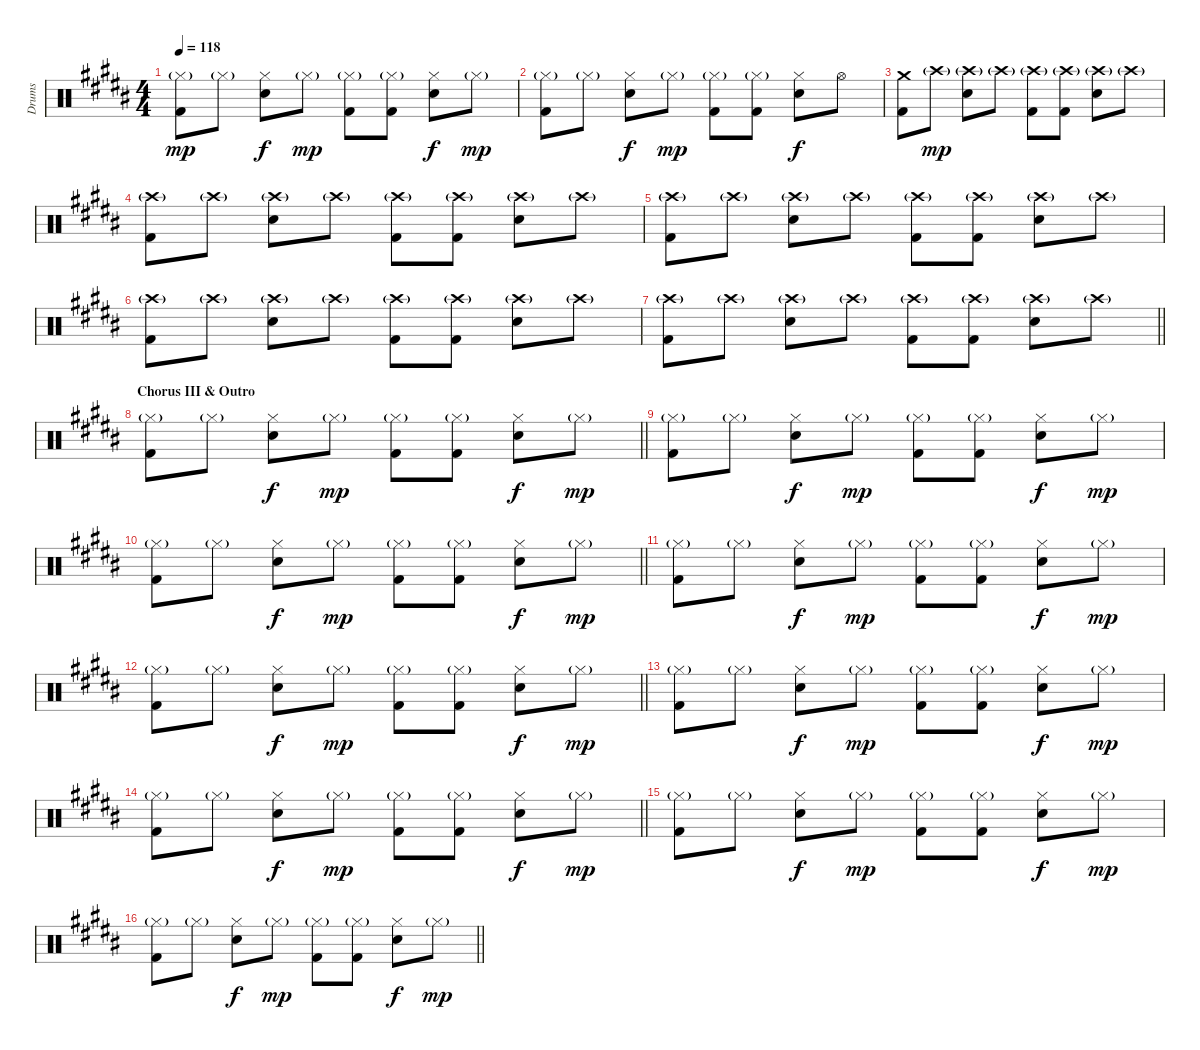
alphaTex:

\track ("Drums" "Drums") {instrument percussion}
\staff {score}
\articulation defaults
\ts (4 4)
\tempo 118
\clef neutral
\ks b
("Hi-Hat (closed)"{g} "Kick (hit) 2").8{dy mp} "Hi-Hat (closed)"{g}.8 ("Hi-Hat (closed)" "Snare (hit) 2").8{dy f} "Hi-Hat (closed)"{g}.8{dy mp} ("Hi-Hat (closed)"{g} "Kick (hit) 2").8 ("Hi-Hat (closed)"{g} "Kick (hit) 2").8 ("Hi-Hat (closed)" "Snare (hit) 2").8{dy f} "Hi-Hat (closed)"{g}.8{dy mp} |
("Hi-Hat (closed)"{g} "Kick (hit) 2").8 "Hi-Hat (closed)"{g}.8 ("Hi-Hat (closed)" "Snare (hit) 2").8{dy f} "Hi-Hat (closed)"{g}.8{dy mp} ("Hi-Hat (closed)"{g} "Kick (hit) 2").8 ("Hi-Hat (closed)"{g} "Kick (hit) 2").8 ("Hi-Hat (closed)" "Snare (hit) 2").8{dy f} "Hi-Hat (open)".8 |
("Crash medium (hit)" "Kick (hit) 2").8 "Crash high (hit)"{g}.8{dy mp} ("Crash high (hit)"{g} "Snare (hit) 2").8 "Crash high (hit)"{g}.8 ("Crash high (hit)"{g} "Kick (hit) 2").8 ("Crash high (hit)"{g} "Kick (hit) 2").8 ("Crash high (hit)"{g} "Snare (hit) 2").8 "Crash high (hit)"{g}.8 |
("Crash high (hit)"{g} "Kick (hit) 2").8 "Crash high (hit)"{g}.8 ("Crash high (hit)"{g} "Snare (hit) 2").8 "Crash high (hit)"{g}.8 ("Crash high (hit)"{g} "Kick (hit) 2").8 ("Crash high (hit)"{g} "Kick (hit) 2").8 ("Crash high (hit)"{g} "Snare (hit) 2").8 "Crash high (hit)"{g}.8 |
("Crash high (hit)"{g} "Kick (hit) 2").8 "Crash high (hit)"{g}.8 ("Crash high (hit)"{g} "Snare (hit) 2").8 "Crash high (hit)"{g}.8 ("Crash high (hit)"{g} "Kick (hit) 2").8 ("Crash high (hit)"{g} "Kick (hit) 2").8 ("Crash high (hit)"{g} "Snare (hit) 2").8 "Crash high (hit)"{g}.8 |
("Crash high (hit)"{g} "Kick (hit) 2").8 "Crash high (hit)"{g}.8 ("Crash high (hit)"{g} "Snare (hit) 2").8 "Crash high (hit)"{g}.8 ("Crash high (hit)"{g} "Kick (hit) 2").8 ("Crash high (hit)"{g} "Kick (hit) 2").8 ("Crash high (hit)"{g} "Snare (hit) 2").8 "Crash high (hit)"{g}.8 |
\barLineRight lightlight
("Crash high (hit)"{g} "Kick (hit) 2").8 "Crash high (hit)"{g}.8 ("Crash high (hit)"{g} "Snare (hit) 2").8 "Crash high (hit)"{g}.8 ("Crash high (hit)"{g} "Kick (hit) 2").8 ("Crash high (hit)"{g} "Kick (hit) 2").8 ("Crash high (hit)"{g} "Snare (hit) 2").8 "Crash high (hit)"{g}.8 |
\section ("" "Chorus III & Outro")
\barLineRight lightlight
("Hi-Hat (closed)"{g} "Kick (hit) 2").8 "Hi-Hat (closed)"{g}.8 ("Hi-Hat (closed)" "Snare (hit) 2").8{dy f} "Hi-Hat (closed)"{g}.8{dy mp} ("Hi-Hat (closed)"{g} "Kick (hit) 2").8 ("Hi-Hat (closed)"{g} "Kick (hit) 2").8 ("Hi-Hat (closed)" "Snare (hit) 2").8{dy f} "Hi-Hat (closed)"{g}.8{dy mp} |
("Hi-Hat (closed)"{g} "Kick (hit) 2").8 "Hi-Hat (closed)"{g}.8 ("Hi-Hat (closed)" "Snare (hit) 2").8{dy f} "Hi-Hat (closed)"{g}.8{dy mp} ("Hi-Hat (closed)"{g} "Kick (hit) 2").8 ("Hi-Hat (closed)"{g} "Kick (hit) 2").8 ("Hi-Hat (closed)" "Snare (hit) 2").8{dy f} "Hi-Hat (closed)"{g}.8{dy mp} |
\barLineRight lightlight
("Hi-Hat (closed)"{g} "Kick (hit) 2").8 "Hi-Hat (closed)"{g}.8 ("Hi-Hat (closed)" "Snare (hit) 2").8{dy f} "Hi-Hat (closed)"{g}.8{dy mp} ("Hi-Hat (closed)"{g} "Kick (hit) 2").8 ("Hi-Hat (closed)"{g} "Kick (hit) 2").8 ("Hi-Hat (closed)" "Snare (hit) 2").8{dy f} "Hi-Hat (closed)"{g}.8{dy mp} |
("Hi-Hat (closed)"{g} "Kick (hit) 2").8 "Hi-Hat (closed)"{g}.8 ("Hi-Hat (closed)" "Snare (hit) 2").8{dy f} "Hi-Hat (closed)"{g}.8{dy mp} ("Hi-Hat (closed)"{g} "Kick (hit) 2").8 ("Hi-Hat (closed)"{g} "Kick (hit) 2").8 ("Hi-Hat (closed)" "Snare (hit) 2").8{dy f} "Hi-Hat (closed)"{g}.8{dy mp} |
\barLineRight lightlight
("Hi-Hat (closed)"{g} "Kick (hit) 2").8 "Hi-Hat (closed)"{g}.8 ("Hi-Hat (closed)" "Snare (hit) 2").8{dy f} "Hi-Hat (closed)"{g}.8{dy mp} ("Hi-Hat (closed)"{g} "Kick (hit) 2").8 ("Hi-Hat (closed)"{g} "Kick (hit) 2").8 ("Hi-Hat (closed)" "Snare (hit) 2").8{dy f} "Hi-Hat (closed)"{g}.8{dy mp} |
("Hi-Hat (closed)"{g} "Kick (hit) 2").8 "Hi-Hat (closed)"{g}.8 ("Hi-Hat (closed)" "Snare (hit) 2").8{dy f} "Hi-Hat (closed)"{g}.8{dy mp} ("Hi-Hat (closed)"{g} "Kick (hit) 2").8 ("Hi-Hat (closed)"{g} "Kick (hit) 2").8 ("Hi-Hat (closed)" "Snare (hit) 2").8{dy f} "Hi-Hat (closed)"{g}.8{dy mp} |
\barLineRight lightlight
("Hi-Hat (closed)"{g} "Kick (hit) 2").8 "Hi-Hat (closed)"{g}.8 ("Hi-Hat (closed)" "Snare (hit) 2").8{dy f} "Hi-Hat (closed)"{g}.8{dy mp} ("Hi-Hat (closed)"{g} "Kick (hit) 2").8 ("Hi-Hat (closed)"{g} "Kick (hit) 2").8 ("Hi-Hat (closed)" "Snare (hit) 2").8{dy f} "Hi-Hat (closed)"{g}.8{dy mp} |
("Hi-Hat (closed)"{g} "Kick (hit) 2").8 "Hi-Hat (closed)"{g}.8 ("Hi-Hat (closed)" "Snare (hit) 2").8{dy f} "Hi-Hat (closed)"{g}.8{dy mp} ("Hi-Hat (closed)"{g} "Kick (hit) 2").8 ("Hi-Hat (closed)"{g} "Kick (hit) 2").8 ("Hi-Hat (closed)" "Snare (hit) 2").8{dy f} "Hi-Hat (closed)"{g}.8{dy mp} |
\barLineRight lightlight
("Hi-Hat (closed)"{g} "Kick (hit) 2").8 "Hi-Hat (closed)"{g}.8 ("Hi-Hat (closed)" "Snare (hit) 2").8{dy f} "Hi-Hat (closed)"{g}.8{dy mp} ("Hi-Hat (closed)"{g} "Kick (hit) 2").8 ("Hi-Hat (closed)"{g} "Kick (hit) 2").8 ("Hi-Hat (closed)" "Snare (hit) 2").8{dy f} "Hi-Hat (closed)"{g}.8{dy mp}
